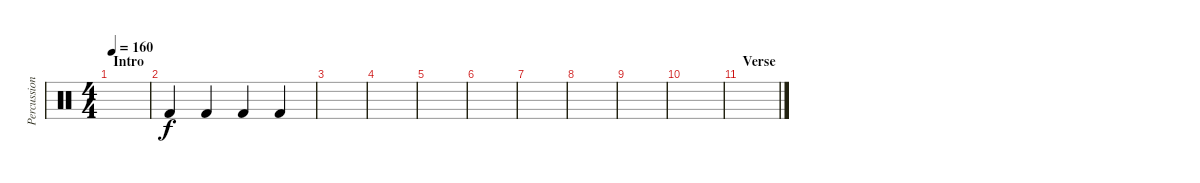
\track ("Percussion" "Percussion") {instrument percussion}
\staff {score}
\articulation defaults
\ts (4 4)
\section ("" "Intro")
\tempo 160
\clef neutral
\ks c
|
"Kick (hit) 2".4 "Kick (hit) 2".4 "Kick (hit) 2".4 "Kick (hit) 2".4 |
|
|
|
|
|
|
|
|
\section ("" "Verse")
